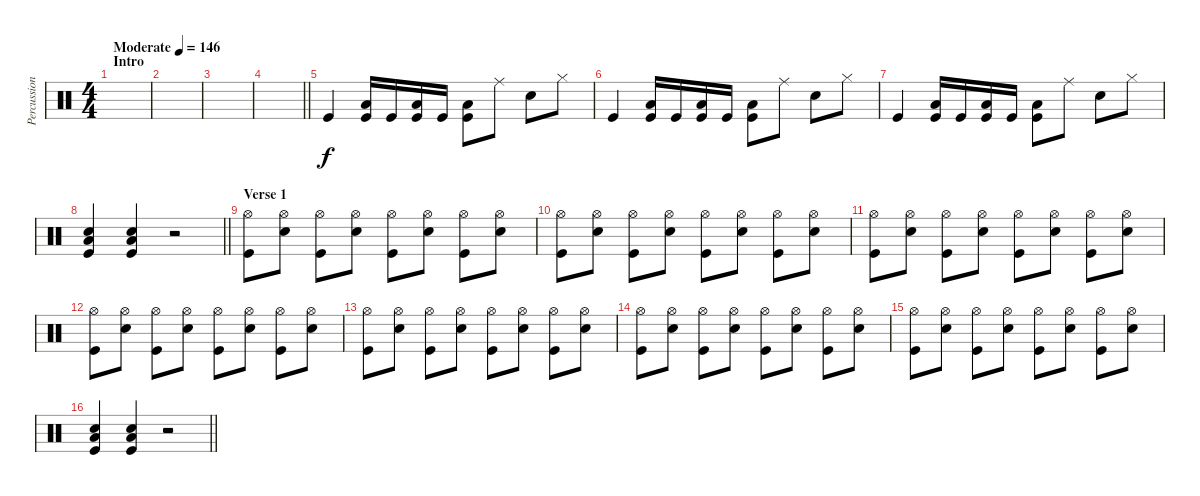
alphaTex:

\track ("Percussion" "Percussion") {instrument percussion}
\staff {score}
\articulation defaults
\ts (4 4)
\section ("" "Intro")
\tempo (146 "Moderate")
\clef neutral
\ks c
|
|
|
\barLineRight lightlight
|
"Kick (hit)".4 ("Low Floor Tom (hit)" "Kick (hit)").16 "Kick (hit)".16 ("Low Floor Tom (hit)" "Kick (hit)").16 "Kick (hit)".16 ("Low Floor Tom (hit)" "Kick (hit)").8 "Ride (middle)".8 "Snare (hit) 2".8 "Hi-Hat (closed)".8 |
"Kick (hit)".4 ("Low Floor Tom (hit)" "Kick (hit)").16 "Kick (hit)".16 ("Low Floor Tom (hit)" "Kick (hit)").16 "Kick (hit)".16 ("Low Floor Tom (hit)" "Kick (hit)").8 "Ride (middle)".8 "Snare (hit) 2".8 "Hi-Hat (closed)".8 |
"Kick (hit)".4 ("Low Floor Tom (hit)" "Kick (hit)").16 "Kick (hit)".16 ("Low Floor Tom (hit)" "Kick (hit)").16 "Kick (hit)".16 ("Low Floor Tom (hit)" "Kick (hit)").8 "Ride (middle)".8 "Snare (hit) 2".8 "Hi-Hat (closed)".8 |
\barLineRight lightlight
("Low Floor Tom (hit)" "Snare (hit) 2" "Kick (hit)").4 ("Low Floor Tom (hit)" "Snare (hit) 2" "Kick (hit)").4 r.2 |
\section ("" "Verse 1")
("Hi-Hat (open)" "Kick (hit)").8 ("Hi-Hat (open)" "Snare (hit) 2").8 ("Hi-Hat (open)" "Kick (hit)").8 ("Hi-Hat (open)" "Snare (hit) 2").8 ("Hi-Hat (open)" "Kick (hit)").8 ("Hi-Hat (open)" "Snare (hit) 2").8 ("Hi-Hat (open)" "Kick (hit)").8 ("Hi-Hat (open)" "Snare (hit) 2").8 |
("Hi-Hat (open)" "Kick (hit)").8 ("Hi-Hat (open)" "Snare (hit) 2").8 ("Hi-Hat (open)" "Kick (hit)").8 ("Hi-Hat (open)" "Snare (hit) 2").8 ("Hi-Hat (open)" "Kick (hit)").8 ("Hi-Hat (open)" "Snare (hit) 2").8 ("Hi-Hat (open)" "Kick (hit)").8 ("Hi-Hat (open)" "Snare (hit) 2").8 |
("Hi-Hat (open)" "Kick (hit)").8 ("Hi-Hat (open)" "Snare (hit) 2").8 ("Hi-Hat (open)" "Kick (hit)").8 ("Hi-Hat (open)" "Snare (hit) 2").8 ("Hi-Hat (open)" "Kick (hit)").8 ("Hi-Hat (open)" "Snare (hit) 2").8 ("Hi-Hat (open)" "Kick (hit)").8 ("Hi-Hat (open)" "Snare (hit) 2").8 |
("Hi-Hat (open)" "Kick (hit)").8 ("Hi-Hat (open)" "Snare (hit) 2").8 ("Hi-Hat (open)" "Kick (hit)").8 ("Hi-Hat (open)" "Snare (hit) 2").8 ("Hi-Hat (open)" "Kick (hit)").8 ("Hi-Hat (open)" "Snare (hit) 2").8 ("Hi-Hat (open)" "Kick (hit)").8 ("Hi-Hat (open)" "Snare (hit) 2").8 |
("Hi-Hat (open)" "Kick (hit)").8 ("Hi-Hat (open)" "Snare (hit) 2").8 ("Hi-Hat (open)" "Kick (hit)").8 ("Hi-Hat (open)" "Snare (hit) 2").8 ("Hi-Hat (open)" "Kick (hit)").8 ("Hi-Hat (open)" "Snare (hit) 2").8 ("Hi-Hat (open)" "Kick (hit)").8 ("Hi-Hat (open)" "Snare (hit) 2").8 |
("Hi-Hat (open)" "Kick (hit)").8 ("Hi-Hat (open)" "Snare (hit) 2").8 ("Hi-Hat (open)" "Kick (hit)").8 ("Hi-Hat (open)" "Snare (hit) 2").8 ("Hi-Hat (open)" "Kick (hit)").8 ("Hi-Hat (open)" "Snare (hit) 2").8 ("Hi-Hat (open)" "Kick (hit)").8 ("Hi-Hat (open)" "Snare (hit) 2").8 |
("Hi-Hat (open)" "Kick (hit)").8 ("Hi-Hat (open)" "Snare (hit) 2").8 ("Hi-Hat (open)" "Kick (hit)").8 ("Hi-Hat (open)" "Snare (hit) 2").8 ("Hi-Hat (open)" "Kick (hit)").8 ("Hi-Hat (open)" "Snare (hit) 2").8 ("Hi-Hat (open)" "Kick (hit)").8 ("Hi-Hat (open)" "Snare (hit) 2").8 |
\barLineRight lightlight
("Low Floor Tom (hit)" "Snare (hit) 2" "Kick (hit)").4 ("Low Floor Tom (hit)" "Snare (hit) 2" "Kick (hit)").4 r.2
